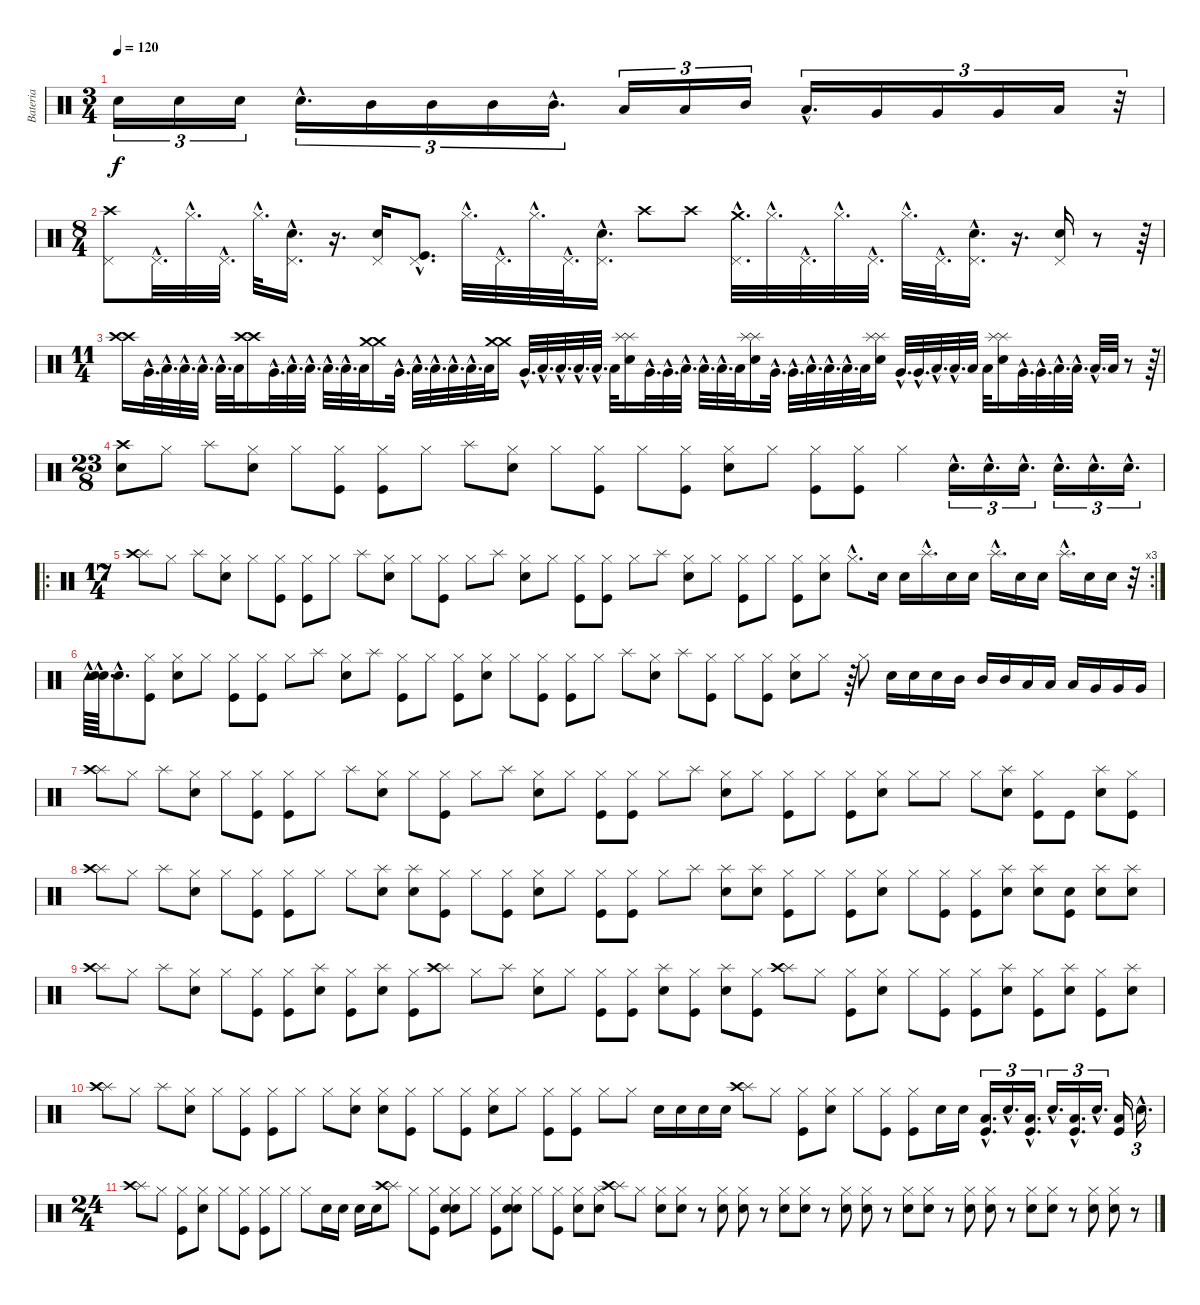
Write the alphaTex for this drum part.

\track ("Bateria" "Bateria") {instrument percussion}
\staff {score}
\articulation defaults
\ts (3 4)
\tempo 120
\clef neutral
\ks c "Electric Snare (hit)".16{tu (3 2) dy f} "Electric Snare (hit)".16{tu (3 2)} "Electric Snare (hit)".16{tu (3 2)} "Electric Snare (hit)"{hac}.16{d tu (3 2)} "Mid Tom (hit)".16{tu (3 2)} "Mid Tom (hit)".16{tu (3 2)} "Mid Tom (hit)".16{tu (3 2)} "Mid Tom (hit)"{hac}.16{d tu (3 2)} "Low Tom (hit)".16{tu (3 2)} "Low Tom (hit)".16{tu (3 2)} "Mid Tom (hit)".16{tu (3 2)} "Low Tom (hit)"{hac}.16{d tu (3 2)} "Very Low Tom (hit)".16{tu (3 2)} "Very Low Tom (hit)".16{tu (3 2)} "Very Low Tom (hit)".16{tu (3 2)} "Low Floor Tom (hit)".16{tu (3 2)}
r.32{tu (3 2)} |
\ts (8 4)
("Crash high (hit)" "Pedal Hi-Hat (hit)").8 "Pedal Hi-Hat (hit)"{hac}.32{d} "Hi-Hat (closed)"{hac}.32{d} "Pedal Hi-Hat (hit)"{hac}.32{d} "Hi-Hat (closed)"{hac}.32{d} ("Electric Snare (hit)"{hac} "Pedal Hi-Hat (hit)"{hac}).16{d} r.16{d} ("Electric Snare (hit)" "Pedal Hi-Hat (hit)").16 ("Pedal Hi-Hat (hit)"{hac} "Kick (hit)"{hac}).8{d} "Hi-Hat (closed)"{hac}.32{d} "Pedal Hi-Hat (hit)"{hac}.32{d} "Hi-Hat (closed)"{hac}.32{d} "Pedal Hi-Hat (hit)"{hac}.32{d} ("Electric Snare (hit)"{hac} "Pedal Hi-Hat (hit)"{hac}).16{d} "Crash high (hit)".8 "Crash high (hit)".8 ("Crash medium (hit)"{hac} "Pedal Hi-Hat (hit)"{hac}).32{d} "Hi-Hat (closed)"{hac}.32{d} "Pedal Hi-Hat (hit)"{hac}.32{d} "Hi-Hat (closed)"{hac}.32{d} "Pedal Hi-Hat (hit)"{hac}.32{d} "Hi-Hat (closed)"{hac}.32{d} "Pedal Hi-Hat (hit)"{hac}.32{d} ("Electric Snare (hit)"{hac} "Pedal Hi-Hat (hit)"{hac}).16{d} r.16{d} ("Electric Snare (hit)" "Pedal Hi-Hat (hit)").16 r.8 r.64 |
\ts (11 4)
("Crash high (hit)" "Crash high (hit)").16 "Very Low Tom (hit)"{hac}.32{d} "Low Floor Tom (hit)"{hac}.32{d} "Low Floor Tom (hit)"{hac}.32{d} "Low Floor Tom (hit)"{hac}.32{d} "Low Floor Tom (hit)"{hac}.32{d} "Low Floor Tom (hit)".32 ("Crash high (hit)" "Crash high (hit)").16 "Very Low Tom (hit)"{hac}.32{d} "Low Floor Tom (hit)"{hac}.32{d} "Low Floor Tom (hit)"{hac}.32{d} "Low Floor Tom (hit)"{hac}.32{d} "Low Floor Tom (hit)"{hac}.32{d} "Low Floor Tom (hit)".32 ("Crash medium (hit)" "Crash medium (hit)").16 "Very Low Tom (hit)"{hac}.32{d} "Low Floor Tom (hit)"{hac}.32{d} "Low Floor Tom (hit)"{hac}.32{d} "Low Floor Tom (hit)"{hac}.32{d} "Low Floor Tom (hit)"{hac}.32{d} "Low Floor Tom (hit)".32 ("Crash medium (hit)" "Crash medium (hit)").16 "Very Low Tom (hit)"{hac}.32{d} "Low Floor Tom (hit)"{hac}.32{d} "Low Floor Tom (hit)"{hac}.32{d} "Low Floor Tom (hit)"{hac}.32{d} "Low Floor Tom (hit)"{hac}.32{d} "Low Floor Tom (hit)".32 ("Splash (hit)" "Splash (hit)" "Electric Snare (hit)").16 "Very Low Tom (hit)"{hac}.32{d} "Very Low Tom (hit)"{hac}.32{d} "Low Floor Tom (hit)"{hac}.32{d} "Low Floor Tom (hit)"{hac}.32{d} "Low Floor Tom (hit)"{hac}.32{d} "Low Floor Tom (hit)".32 ("Splash (hit)" "Splash (hit)" "Electric Snare (hit)").16 "Very Low Tom (hit)"{hac}.32{d} "Very Low Tom (hit)"{hac}.32{d} "Low Floor Tom (hit)"{hac}.32{d} "Low Floor Tom (hit)"{hac}.32{d} "Low Floor Tom (hit)"{hac}.32{d} "Low Floor Tom (hit)".32 ("Splash (hit)" "Splash (hit)" "Electric Snare (hit)").16 "Very Low Tom (hit)"{hac}.32{d} "Very Low Tom (hit)"{hac}.32{d} "Low Floor Tom (hit)"{hac}.32{d} "Low Floor Tom (hit)"{hac}.32{d} "Low Floor Tom (hit)".32 "Low Floor Tom (hit)".32 ("Splash (hit)" "Splash (hit)" "Electric Snare (hit)").16 "Very Low Tom (hit)"{hac}.32{d} "Very Low Tom (hit)"{hac}.32{d} "Low Floor Tom (hit)"{hac}.32{d} "Low Floor Tom (hit)"{hac}.32{d} "Low Floor Tom (hit)"{hac}.32{d} "Low Floor Tom (hit)".32 r.8 r.64 |
\ts (23 8)
("Crash high (hit)" "Electric Snare (hit)").8 "Hi-Hat (closed)".8 "Splash (hit)".8 ("Hi-Hat (closed)" "Electric Snare (hit)").8 "Hi-Hat (closed)".8 ("Hi-Hat (closed)" "Kick (hit)").8 ("Hi-Hat (closed)" "Kick (hit)").8 "Hi-Hat (closed)".8 "Splash (hit)".8 ("Hi-Hat (closed)" "Electric Snare (hit)").8 "Hi-Hat (closed)".8 ("Hi-Hat (closed)" "Kick (hit)").8 "Hi-Hat (closed)".8 ("Hi-Hat (closed)" "Kick (hit)").8 ("Hi-Hat (closed)" "Electric Snare (hit)").8 "Hi-Hat (closed)".8 ("Hi-Hat (closed)" "Kick (hit)").8 ("Hi-Hat (closed)" "Kick (hit)").8 "Hi-Hat (closed)".4 "Electric Snare (hit)"{hac}.16{d tu (3 2)} "Electric Snare (hit)"{hac}.16{d tu (3 2)} "Electric Snare (hit)"{hac}.16{d tu (3 2)} "Electric Snare (hit)"{hac}.16{d tu (3 2)} "Electric Snare (hit)"{hac}.16{d tu (3 2)} "Electric Snare (hit)"{hac}.16{d tu (3 2)} |
\ro
\rc 3
\ts (17 4)
("Splash (hit)" "Crash high (hit)").8 "Hi-Hat (closed)".8 "Splash (hit)".8 ("Hi-Hat (closed)" "Electric Snare (hit)").8 "Hi-Hat (closed)".8 ("Hi-Hat (closed)" "Kick (hit)").8 ("Hi-Hat (closed)" "Kick (hit)").8 "Hi-Hat (closed)".8 "Splash (hit)".8 ("Hi-Hat (closed)" "Electric Snare (hit)").8 "Hi-Hat (closed)".8 ("Hi-Hat (closed)" "Kick (hit)").8 "Hi-Hat (closed)".8 "Splash (hit)".8 ("Hi-Hat (closed)" "Electric Snare (hit)").8 "Hi-Hat (closed)".8 ("Hi-Hat (closed)" "Kick (hit)").8 ("Hi-Hat (closed)" "Kick (hit)").8 "Hi-Hat (closed)".8 "Splash (hit)".8 ("Hi-Hat (closed)" "Electric Snare (hit)").8 "Hi-Hat (closed)".8 ("Hi-Hat (closed)" "Kick (hit)").8 "Hi-Hat (closed)".8 ("Hi-Hat (closed)" "Kick (hit)").8 ("Hi-Hat (closed)" "Electric Snare (hit)").8 "Hi-Hat (closed)"{hac}.8{d} "Electric Snare (hit)".16 "Electric Snare (hit)".16 "Splash (hit)"{hac}.16{d} "Electric Snare (hit)".16 "Electric Snare (hit)".16 "Splash (hit)"{hac}.16{d} "Electric Snare (hit)".16 "Electric Snare (hit)".16 "Splash (hit)"{hac}.16{d} "Electric Snare (hit)".16 "Electric Snare (hit)".16 r.32 |
"Tambourine (hit)"{hac}.64{d} ("Electric Snare (hit)"{hac} "Electric Snare (hit)"{hac}).64{d} "Electric Snare (hit)"{hac}.8{d} ("Hi-Hat (closed)" "Kick (hit)").8 ("Hi-Hat (closed)" "Electric Snare (hit)").8 "Hi-Hat (closed)".8 ("Hi-Hat (closed)" "Kick (hit)").8 ("Hi-Hat (closed)" "Kick (hit)").8 "Hi-Hat (closed)".8 "Splash (hit)".8 ("Hi-Hat (closed)" "Electric Snare (hit)").8 "Splash (hit)".8 ("Hi-Hat (closed)" "Kick (hit)").8 "Hi-Hat (closed)".8 ("Hi-Hat (closed)" "Kick (hit)").8 ("Hi-Hat (closed)" "Electric Snare (hit)").8 "Hi-Hat (closed)".8 ("Hi-Hat (closed)" "Kick (hit)").8 ("Hi-Hat (closed)" "Kick (hit)").8 "Hi-Hat (closed)".8 "Splash (hit)".8 ("Hi-Hat (closed)" "Electric Snare (hit)").8 "Splash (hit)".8 ("Hi-Hat (closed)" "Kick (hit)").8 "Hi-Hat (closed)".8 ("Hi-Hat (closed)" "Kick (hit)").8 ("Hi-Hat (closed)" "Electric Snare (hit)").8 "Hi-Hat (closed)".8 r.64 "Hi-Hat (closed)".8 "Electric Snare (hit)".16 "Electric Snare (hit)".16 "Electric Snare (hit)".16 "Mid Tom (hit)".16 "Mid Tom (hit)".16 "Mid Tom (hit)".16 "Low Tom (hit)".16 "Low Tom (hit)".16 "Low Tom (hit)".16 "Very Low Tom (hit)".16 "Very Low Tom (hit)".16 "Very Low Tom (hit)".16 |
("Splash (hit)" "Crash high (hit)").8 "Hi-Hat (closed)".8 "Splash (hit)".8 ("Hi-Hat (closed)" "Electric Snare (hit)").8 "Hi-Hat (closed)".8 ("Hi-Hat (closed)" "Kick (hit)").8 ("Hi-Hat (closed)" "Kick (hit)").8 "Hi-Hat (closed)".8 "Splash (hit)".8 ("Hi-Hat (closed)" "Electric Snare (hit)").8 "Hi-Hat (closed)".8 ("Hi-Hat (closed)" "Kick (hit)").8 "Hi-Hat (closed)".8 "Splash (hit)".8 ("Hi-Hat (closed)" "Electric Snare (hit)").8 "Hi-Hat (closed)".8 ("Hi-Hat (closed)" "Kick (hit)").8 ("Hi-Hat (closed)" "Kick (hit)").8 "Hi-Hat (closed)".8 "Splash (hit)".8 ("Hi-Hat (closed)" "Electric Snare (hit)").8 "Hi-Hat (closed)".8 ("Hi-Hat (closed)" "Kick (hit)").8 "Hi-Hat (closed)".8 ("Hi-Hat (closed)" "Kick (hit)").8 ("Hi-Hat (closed)" "Electric Snare (hit)").8 "Hi-Hat (closed)".8 "Hi-Hat (closed)".8 "Hi-Hat (closed)".8 ("Splash (hit)" "Electric Snare (hit)").8 ("Hi-Hat (closed)" "Kick (hit)").8 "Kick (hit)".8 ("Splash (hit)" "Electric Snare (hit)").8 ("Hi-Hat (closed)" "Kick (hit)").8 |
("Splash (hit)" "Crash high (hit)").8 "Hi-Hat (closed)".8 "Splash (hit)".8 ("Hi-Hat (closed)" "Electric Snare (hit)").8 "Hi-Hat (closed)".8 ("Hi-Hat (closed)" "Kick (hit)").8 ("Hi-Hat (closed)" "Kick (hit)").8 "Hi-Hat (closed)".8 "Hi-Hat (closed)".8 ("Splash (hit)" "Electric Snare (hit)").8 ("Splash (hit)" "Electric Snare (hit)").8 ("Hi-Hat (closed)" "Kick (hit)").8 "Hi-Hat (closed)".8 ("Hi-Hat (closed)" "Kick (hit)").8 ("Hi-Hat (closed)" "Electric Snare (hit)").8 "Hi-Hat (closed)".8 ("Hi-Hat (closed)" "Kick (hit)").8 ("Hi-Hat (closed)" "Kick (hit)").8 "Hi-Hat (closed)".8 "Splash (hit)".8 ("Splash (hit)" "Electric Snare (hit)").8 ("Splash (hit)" "Electric Snare (hit)").8 ("Hi-Hat (closed)" "Kick (hit)").8 "Hi-Hat (closed)".8 ("Hi-Hat (closed)" "Kick (hit)").8 ("Hi-Hat (closed)" "Electric Snare (hit)").8 "Hi-Hat (closed)".8 ("Hi-Hat (closed)" "Kick (hit)").8 ("Hi-Hat (closed)" "Kick (hit)").8 ("Splash (hit)" "Electric Snare (hit)").8 ("Splash (hit)" "Electric Snare (hit)").8 ("Snare (hit)" "Kick (hit)").8 ("Splash (hit)" "Electric Snare (hit)").8 ("Splash (hit)" "Electric Snare (hit)").8 |
("Splash (hit)" "Crash high (hit)").8 "Hi-Hat (closed)".8 "Splash (hit)".8 ("Hi-Hat (closed)" "Electric Snare (hit)").8 "Hi-Hat (closed)".8 ("Hi-Hat (closed)" "Kick (hit)").8 ("Hi-Hat (closed)" "Kick (hit)").8 ("Splash (hit)" "Electric Snare (hit)").8 ("Hi-Hat (closed)" "Kick (hit)").8 ("Splash (hit)" "Electric Snare (hit)").8 ("Hi-Hat (closed)" "Kick (hit)").8 ("Splash (hit)" "Crash high (hit)").8 "Hi-Hat (closed)".8 "Splash (hit)".8 ("Hi-Hat (closed)" "Electric Snare (hit)").8 "Hi-Hat (closed)".8 ("Hi-Hat (closed)" "Kick (hit)").8 ("Hi-Hat (closed)" "Kick (hit)").8 ("Splash (hit)" "Electric Snare (hit)").8 ("Hi-Hat (closed)" "Kick (hit)").8 ("Splash (hit)" "Electric Snare (hit)").8 ("Hi-Hat (closed)" "Kick (hit)").8 ("Splash (hit)" "Crash high (hit)").8 "Hi-Hat (closed)".8 ("Hi-Hat (closed)" "Kick (hit)").8 ("Hi-Hat (closed)" "Electric Snare (hit)").8 "Hi-Hat (closed)".8 ("Hi-Hat (closed)" "Kick (hit)").8 ("Hi-Hat (closed)" "Kick (hit)").8 ("Splash (hit)" "Electric Snare (hit)").8 ("Hi-Hat (closed)" "Kick (hit)").8 ("Splash (hit)" "Electric Snare (hit)").8 ("Hi-Hat (closed)" "Kick (hit)").8 ("Splash (hit)" "Electric Snare (hit)").8 |
("Splash (hit)" "Crash high (hit)").8 "Hi-Hat (closed)".8 "Splash (hit)".8 ("Hi-Hat (closed)" "Electric Snare (hit)").8 "Hi-Hat (closed)".8 ("Hi-Hat (closed)" "Kick (hit)").8 ("Hi-Hat (closed)" "Kick (hit)").8 "Hi-Hat (closed)".8 "Hi-Hat (closed)".8 ("Hi-Hat (closed)" "Electric Snare (hit)").8 ("Hi-Hat (closed)" "Electric Snare (hit)").8 ("Hi-Hat (closed)" "Kick (hit)").8 "Hi-Hat (closed)".8 ("Hi-Hat (closed)" "Kick (hit)").8 ("Hi-Hat (closed)" "Electric Snare (hit)").8 "Hi-Hat (closed)".8 ("Hi-Hat (closed)" "Kick (hit)").8 ("Hi-Hat (closed)" "Kick (hit)").8 "Hi-Hat (closed)".8 "Hi-Hat (closed)".8 "Electric Snare (hit)".16 "Electric Snare (hit)".16 "Electric Snare (hit)".16 "Electric Snare (hit)".16 ("Splash (hit)" "Crash high (hit)").8 "Hi-Hat (closed)".8 ("Hi-Hat (closed)" "Kick (hit)").8 ("Hi-Hat (closed)" "Electric Snare (hit)").8 "Hi-Hat (closed)".8 ("Hi-Hat (closed)" "Kick (hit)").8 ("Hi-Hat (closed)" "Kick (hit)").8 "Electric Snare (hit)".16 "Electric Snare (hit)".16 ("Low Floor Tom (hit)"{hac} "Kick (hit)"{hac}).16{d tu (3 2)} "Electric Snare (hit)"{hac}.16{d tu (3 2)} ("Low Floor Tom (hit)"{hac} "Kick (hit)"{hac}).16{d tu (3 2)} "Electric Snare (hit)"{hac}.16{d tu (3 2)} ("Low Floor Tom (hit)"{hac} "Kick (hit)"{hac}).16{d tu (3 2)} "Electric Snare (hit)"{hac}.16{d tu (3 2)} ("Low Floor Tom (hit)" "Kick (hit)").16 "Electric Snare (hit)"{hac}.16{d tu (3 2)} |
\ts (24 4)
("Splash (hit)" "Crash high (hit)").8 "Hi-Hat (closed)".8 ("Hi-Hat (closed)" "Kick (hit)").8 ("Hi-Hat (closed)" "Electric Snare (hit)").8 "Hi-Hat (closed)".8 ("Hi-Hat (closed)" "Kick (hit)").8 ("Hi-Hat (closed)" "Kick (hit)").8 "Hi-Hat (closed)".8 "Hi-Hat (closed)".8 "Electric Snare (hit)".16 "Electric Snare (hit)".16 "Electric Snare (hit)".16 "Electric Snare (hit)".16 ("Splash (hit)" "Crash high (hit)").8 "Hi-Hat (closed)".8 ("Hi-Hat (closed)" "Kick (hit)").8 ("Hi-Hat (closed)" "Electric Snare (hit)" "Electric Snare (hit)").8 "Hi-Hat (closed)".8 ("Hi-Hat (closed)" "Kick (hit)").8 ("Hi-Hat (closed)" "Electric Snare (hit)" "Electric Snare (hit)").8 "Hi-Hat (closed)".8 ("Hi-Hat (closed)" "Kick (hit)").8 ("Hi-Hat (closed)" "Electric Snare (hit)").8 ("Hi-Hat (closed)" "Electric Snare (hit)").8 ("Splash (hit)" "Crash high (hit)").8 "Hi-Hat (closed)".8 ("Hi-Hat (closed)" "Electric Snare (hit)").8 ("Hi-Hat (closed)" "Electric Snare (hit)").8 r.8 ("Hi-Hat (closed)" "Electric Snare (hit)").8 ("Hi-Hat (closed)" "Electric Snare (hit)").8 r.8 ("Hi-Hat (closed)" "Electric Snare (hit)").8 ("Hi-Hat (closed)" "Electric Snare (hit)").8 r.8 ("Hi-Hat (closed)" "Electric Snare (hit)").8 ("Hi-Hat (closed)" "Electric Snare (hit)").8 r.8 ("Hi-Hat (closed)" "Electric Snare (hit)").8 ("Hi-Hat (closed)" "Electric Snare (hit)").8 r.8 ("Hi-Hat (closed)" "Electric Snare (hit)").8 ("Hi-Hat (closed)" "Electric Snare (hit)").8 r.8 ("Hi-Hat (closed)" "Electric Snare (hit)").8 ("Hi-Hat (closed)" "Electric Snare (hit)").8 r.8 ("Hi-Hat (closed)" "Electric Snare (hit)").8 ("Hi-Hat (closed)" "Electric Snare (hit)").8 r.8
